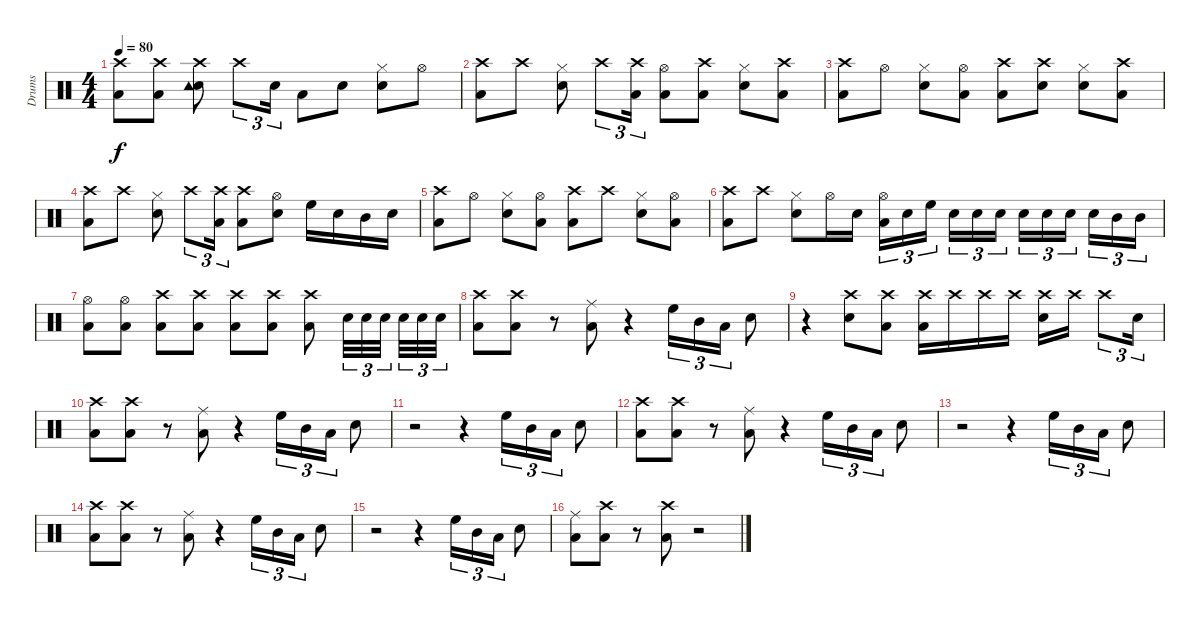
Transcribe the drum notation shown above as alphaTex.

\track ("Drums" "Drums") {instrument percussion}
\staff {score}
\articulation defaults
\ts (4 4)
\tempo 80
\clef neutral
\ks c
("Crash high (hit)" "Low Floor Tom (hit)").8{dy f} ("Crash high (hit)" "Low Floor Tom (hit)").8 ("Crash high (hit)" "Snare (hit) 2" "Tambourine (hit)").8 "Crash high (hit)".8{tu (3 2)} "Snare (hit) 2".16{tu (3 2)} "Low Floor Tom (hit)".8 "Snare (hit) 2".8 ("Hi-Hat (closed)" "Snare (hit) 2").8 "Hi-Hat (open)".8 |
("Crash high (hit)" "Low Floor Tom (hit)").8 "Crash high (hit)".8 ("Hi-Hat (closed)" "Snare (hit) 2").8 "Crash high (hit)".8{tu (3 2)} ("Crash high (hit)" "Low Floor Tom (hit)").16{tu (3 2)} ("Hi-Hat (open)" "Low Floor Tom (hit)").8 ("Crash high (hit)" "Low Floor Tom (hit)").8 ("Hi-Hat (closed)" "Snare (hit) 2").8 ("Crash high (hit)" "Low Floor Tom (hit)").8 |
("Crash high (hit)" "Low Floor Tom (hit)").8 "Hi-Hat (open)".8 ("Hi-Hat (closed)" "Snare (hit) 2").8 ("Hi-Hat (open)" "Low Floor Tom (hit)").8 ("Crash high (hit)" "Low Floor Tom (hit)").8 ("Crash high (hit)" "Snare (hit) 2").8 ("Hi-Hat (closed)" "Snare (hit) 2").8 ("Crash high (hit)" "Low Floor Tom (hit)").8 |
("Crash high (hit)" "Low Floor Tom (hit)").8 "Crash high (hit)".8 ("Hi-Hat (closed)" "Snare (hit) 2").8 "Crash high (hit)".8{tu (3 2)} ("Crash high (hit)" "Low Floor Tom (hit)").16{tu (3 2)} ("Crash high (hit)" "Low Floor Tom (hit)").8 ("Hi-Hat (open)" "Snare (hit) 2").8 "High Floor Tom (hit)".16 "Snare (hit) 2".16 "Mid Tom (hit)".16 "Snare (hit) 2".16 |
("Crash high (hit)" "Low Floor Tom (hit)").8 "Hi-Hat (open)".8 ("Hi-Hat (closed)" "Snare (hit) 2").8 ("Hi-Hat (open)" "Low Floor Tom (hit)").8 ("Crash high (hit)" "Low Floor Tom (hit)").8 "Crash high (hit)".8 ("Hi-Hat (closed)" "Snare (hit) 2").8 ("Hi-Hat (open)" "Low Floor Tom (hit)").8 |
("Crash high (hit)" "Low Floor Tom (hit)").8 "Crash high (hit)".8 ("Hi-Hat (closed)" "Snare (hit) 2").8 "Hi-Hat (open)".16 "Snare (hit) 2".16 ("Hi-Hat (open)" "Low Floor Tom (hit)").16{tu (3 2)} "Snare (hit) 2".16{tu (3 2)} "High Floor Tom (hit)".16{tu (3 2)} "Snare (hit) 2".16{tu (3 2)} "Snare (hit) 2".16{tu (3 2)} "Snare (hit) 2".16{tu (3 2)} "Snare (hit) 2".16{tu (3 2)} "Snare (hit) 2".16{tu (3 2)} "Snare (hit) 2".16{tu (3 2)} "Snare (hit) 2".16{tu (3 2)} "Mid Tom (hit)".16{tu (3 2)} "Mid Tom (hit)".16{tu (3 2)} |
("Hi-Hat (open)" "Low Floor Tom (hit)").8 ("Hi-Hat (open)" "Low Floor Tom (hit)").8 ("Crash high (hit)" "Low Floor Tom (hit)").8 ("Crash high (hit)" "Low Floor Tom (hit)").8 ("Crash high (hit)" "Low Floor Tom (hit)").8 ("Crash high (hit)" "Low Floor Tom (hit)").8 ("Crash high (hit)" "Low Floor Tom (hit)").8 "Snare (hit) 2".32{tu (3 2)} "Snare (hit) 2".32{tu (3 2)} "Snare (hit) 2".32{tu (3 2)} "Snare (hit) 2".32{tu (3 2)} "Snare (hit) 2".32{tu (3 2)} "Snare (hit) 2".32{tu (3 2)} |
("Crash high (hit)" "Low Floor Tom (hit)").8 ("Crash high (hit)" "Low Floor Tom (hit)").8 r.8 ("Ride (middle)" "Low Floor Tom (hit)").8 r.4 "High Floor Tom (hit)".16{tu (3 2)} "Mid Tom (hit)".16{tu (3 2)} "Low Floor Tom (hit)".16{tu (3 2)} "Snare (hit) 2".8 |
r.4 ("Crash high (hit)" "Snare (hit) 2").8 ("Crash high (hit)" "Low Floor Tom (hit)").8 ("Crash high (hit)" "Low Floor Tom (hit)").16 "Crash high (hit)".16 "Crash high (hit)".16 "Crash high (hit)".16 ("Crash high (hit)" "Snare (hit) 2").16 "Crash high (hit)".16 "Crash high (hit)".8{tu (3 2)} "Snare (hit) 2".16{tu (3 2)} |
("Crash high (hit)" "Low Floor Tom (hit)").8 ("Crash high (hit)" "Low Floor Tom (hit)").8 r.8 ("Ride (middle)" "Low Floor Tom (hit)").8 r.4 "High Floor Tom (hit)".16{tu (3 2)} "Mid Tom (hit)".16{tu (3 2)} "Low Floor Tom (hit)".16{tu (3 2)} "Snare (hit) 2".8 |
r.2 r.4 "High Floor Tom (hit)".16{tu (3 2)} "Mid Tom (hit)".16{tu (3 2)} "Low Floor Tom (hit)".16{tu (3 2)} "Snare (hit) 2".8 |
("Crash high (hit)" "Low Floor Tom (hit)").8 ("Crash high (hit)" "Low Floor Tom (hit)").8 r.8 ("Ride (middle)" "Low Floor Tom (hit)").8 r.4 "High Floor Tom (hit)".16{tu (3 2)} "Mid Tom (hit)".16{tu (3 2)} "Low Floor Tom (hit)".16{tu (3 2)} "Snare (hit) 2".8 |
r.2 r.4 "High Floor Tom (hit)".16{tu (3 2)} "Mid Tom (hit)".16{tu (3 2)} "Low Floor Tom (hit)".16{tu (3 2)} "Snare (hit) 2".8 |
("Crash high (hit)" "Low Floor Tom (hit)").8 ("Crash high (hit)" "Low Floor Tom (hit)").8 r.8 ("Ride (middle)" "Low Floor Tom (hit)").8 r.4 "High Floor Tom (hit)".16{tu (3 2)} "Mid Tom (hit)".16{tu (3 2)} "Low Floor Tom (hit)".16{tu (3 2)} "Snare (hit) 2".8 |
r.2 r.4 "High Floor Tom (hit)".16{tu (3 2)} "Mid Tom (hit)".16{tu (3 2)} "Low Floor Tom (hit)".16{tu (3 2)} "Snare (hit) 2".8 |
("Ride (middle)" "Low Floor Tom (hit)").8 ("Crash high (hit)" "Low Floor Tom (hit)").8 r.8 ("Crash high (hit)" "Low Floor Tom (hit)").8 r.2
